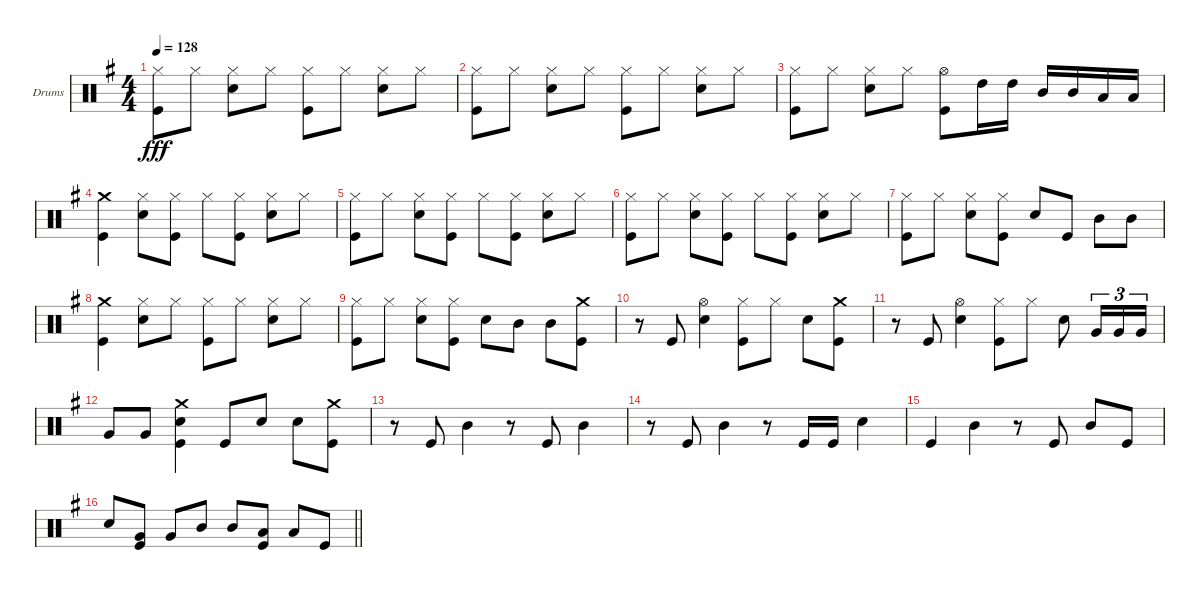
\bracketExtendMode groupsimilarinstruments
\firstSystemTrackNameOrientation horizontal
\otherSystemsTrackNameOrientation horizontal
\track ("Барабаны" "Drums") {instrument percussion}
\staff {score}
\articulation defaults
\ts (4 4)
\tempo 128
\clef neutral
\ks eminor
("Hi-Hat (closed)" "Kick (hit)").8{dy fff} "Hi-Hat (closed)".8 ("Hi-Hat (closed)" "Snare (hit) 2").8 "Hi-Hat (closed)".8 ("Hi-Hat (closed)" "Kick (hit)").8 "Hi-Hat (closed)".8 ("Hi-Hat (closed)" "Snare (hit) 2").8 "Hi-Hat (closed)".8 |
("Hi-Hat (closed)" "Kick (hit)").8 "Hi-Hat (closed)".8 ("Hi-Hat (closed)" "Snare (hit) 2").8 "Hi-Hat (closed)".8 ("Hi-Hat (closed)" "Kick (hit)").8 "Hi-Hat (closed)".8 ("Hi-Hat (closed)" "Snare (hit) 2").8 "Hi-Hat (closed)".8 |
("Hi-Hat (closed)" "Kick (hit)").8 "Hi-Hat (closed)".8 ("Hi-Hat (closed)" "Snare (hit) 2").8 "Hi-Hat (closed)".8 ("Kick (hit)" "Hi-Hat (open)").8 "High Tom (hit)".16 "High Tom (hit)".16 "Mid Tom (hit)".16 "Mid Tom (hit)".16 "Low Tom (hit)".16 "Low Tom (hit)".16 |
("Crash medium (hit)" "Kick (hit)").4 ("Snare (hit) 2" "Hi-Hat (closed)").8 ("Hi-Hat (closed)" "Kick (hit)").8 "Hi-Hat (closed)".8 ("Hi-Hat (closed)" "Kick (hit)").8 ("Hi-Hat (closed)" "Snare (hit) 2").8 "Hi-Hat (closed)".8 |
("Hi-Hat (closed)" "Kick (hit)").8 "Hi-Hat (closed)".8 ("Hi-Hat (closed)" "Snare (hit) 2").8 ("Hi-Hat (closed)" "Kick (hit)").8 "Hi-Hat (closed)".8 ("Hi-Hat (closed)" "Kick (hit)").8 ("Hi-Hat (closed)" "Snare (hit) 2").8 "Hi-Hat (closed)".8 |
("Hi-Hat (closed)" "Kick (hit)").8 "Hi-Hat (closed)".8 ("Hi-Hat (closed)" "Snare (hit) 2").8 ("Hi-Hat (closed)" "Kick (hit)").8 "Hi-Hat (closed)".8 ("Hi-Hat (closed)" "Kick (hit)").8 ("Hi-Hat (closed)" "Snare (hit) 2").8 "Hi-Hat (closed)".8 |
("Hi-Hat (closed)" "Kick (hit)").8 "Hi-Hat (closed)".8 ("Hi-Hat (closed)" "Snare (hit) 2").8 ("Hi-Hat (closed)" "Kick (hit)").8 "Snare (hit) 2".8 "Kick (hit)".8 "Mid Tom (hit)".8 "Mid Tom (hit)".8 |
("Kick (hit)" "Crash medium (hit)").4 ("Hi-Hat (closed)" "Snare (hit) 2").8 "Hi-Hat (closed)".8 ("Hi-Hat (closed)" "Kick (hit)").8 "Hi-Hat (closed)".8 ("Hi-Hat (closed)" "Snare (hit) 2").8 "Hi-Hat (closed)".8 |
("Hi-Hat (closed)" "Kick (hit)").8 "Hi-Hat (closed)".8 ("Snare (hit) 2" "Hi-Hat (closed)").8 ("Hi-Hat (closed)" "Kick (hit)").8 "Snare (hit) 2".8 "Mid Tom (hit)".8 "Mid Tom (hit)".8 ("Kick (hit)" "Crash medium (hit)").8 |
r.8 "Kick (hit)".8 ("Snare (hit) 2" "Hi-Hat (open)").4 ("Kick (hit)" "Hi-Hat (closed)").8 "Hi-Hat (closed)".8 "Snare (hit) 2".8 ("Kick (hit)" "Crash medium (hit)").8 |
r.8 "Kick (hit)".8 ("Snare (hit) 2" "Hi-Hat (open)").4 ("Kick (hit)" "Hi-Hat (closed)").8 "Hi-Hat (closed)".8 "Snare (hit) 2".8 "Very Low Tom (hit)".16{tu (3 2)} "Very Low Tom (hit)".16{tu (3 2)} "Very Low Tom (hit)".16{tu (3 2)} |
"Very Low Tom (hit)".8 "Very Low Tom (hit)".8 ("Kick (hit)" "Crash medium (hit)" "Snare (hit) 2").4 "Kick (hit)".8 "Snare (hit) 2".8 "Snare (hit) 2".8 ("Kick (hit)" "Crash medium (hit)").8 |
r.8 "Kick (hit)".8 "Mid Tom (hit)".4 r.8 "Kick (hit)".8 "Mid Tom (hit)".4 |
r.8 "Kick (hit)".8 "Mid Tom (hit)".4 r.8 "Kick (hit)".16 "Kick (hit)".16 "Snare (hit) 2".4 |
"Kick (hit)".4 "Mid Tom (hit)".4 r.8 "Kick (hit)".8 "Mid Tom (hit)".8 "Kick (hit)".8 |
\barLineRight lightlight "Snare (hit) 2".8
("Kick (hit)" "Very Low Tom (hit)").8 "Very Low Tom (hit)".8 "Mid Tom (hit)".8 "Mid Tom (hit)".8 ("Kick (hit)" "Low Tom (hit)").8 "Low Tom (hit)".8 "Kick (hit)".8
